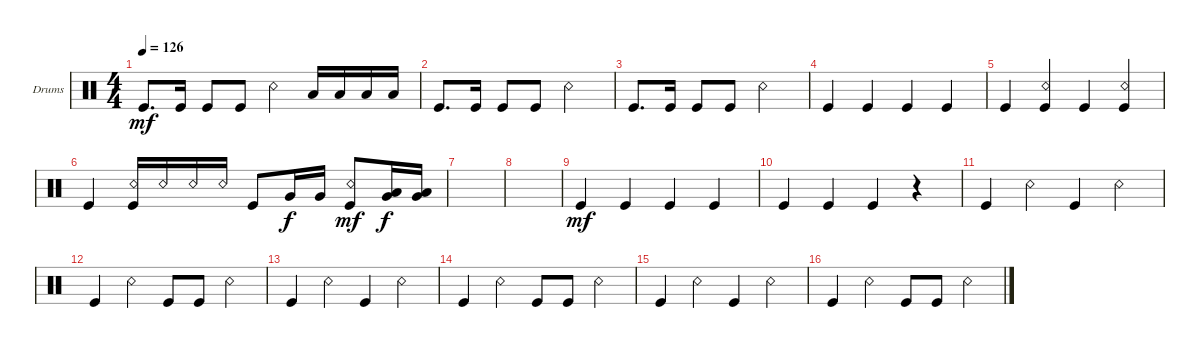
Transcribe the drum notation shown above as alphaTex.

\defaultSystemsLayout 4
\bracketExtendMode groupsimilarinstruments
\firstSystemTrackNameOrientation horizontal
\otherSystemsTrackNameOrientation horizontal
\track ("Drumkit" "Drums") {instrument percussion}
\staff {score}
\articulation defaults
\ts (4 4)
\tempo 126
\clef neutral
\ks c "Kick (hit)".8{d dy mf} "Kick (hit)".16 "Kick (hit)".8 "Kick (hit)".8 "Snare (rim shot)".4 "Low Tom (hit)".16 "Low Tom (hit)".16 "Low Tom (hit)".16 "Low Tom (hit)".16
|
"Kick (hit)".8{d} "Kick (hit)".16 "Kick (hit)".8 "Kick (hit)".8 "Snare (rim shot)".2 |
"Kick (hit)".8{d} "Kick (hit)".16 "Kick (hit)".8 "Kick (hit)".8 "Snare (rim shot)".2 |
"Kick (hit)".4 "Kick (hit)".4 "Kick (hit)".4 "Kick (hit)".4 |
"Kick (hit)".4 ("Kick (hit)" "Snare (rim shot)").4 "Kick (hit)".4 ("Kick (hit)" "Snare (rim shot)").4 |
"Kick (hit)".4 ("Snare (rim shot)" "Kick (hit)").16 "Snare (rim shot)".16 "Snare (rim shot)".16 "Snare (rim shot)".16 "Kick (hit)".8 "Very Low Tom (hit)".16{dy f} "Very Low Tom (hit)".16 ("Kick (hit)" "Snare (rim shot)").8{dy mf} ("Very Low Tom (hit)" "Low Tom (hit)").16{dy f} ("Very Low Tom (hit)" "Low Tom (hit)").16 |
|
|
"Kick (hit)".4{dy mf} "Kick (hit)".4 "Kick (hit)".4 "Kick (hit)".4 |
"Kick (hit)".4 "Kick (hit)".4 "Kick (hit)".4 r.4 |
"Kick (hit)".4 "Snare (rim shot)".4 "Kick (hit)".4 "Snare (rim shot)".4 |
"Kick (hit)".4 "Snare (rim shot)".4 "Kick (hit)".8 "Kick (hit)".8 "Snare (rim shot)".4 |
"Kick (hit)".4 "Snare (rim shot)".4 "Kick (hit)".4 "Snare (rim shot)".4 |
"Kick (hit)".4 "Snare (rim shot)".4 "Kick (hit)".8 "Kick (hit)".8 "Snare (rim shot)".4 |
"Kick (hit)".4 "Snare (rim shot)".4 "Kick (hit)".4 "Snare (rim shot)".4 |
"Kick (hit)".4 "Snare (rim shot)".4 "Kick (hit)".8 "Kick (hit)".8 "Snare (rim shot)".4
